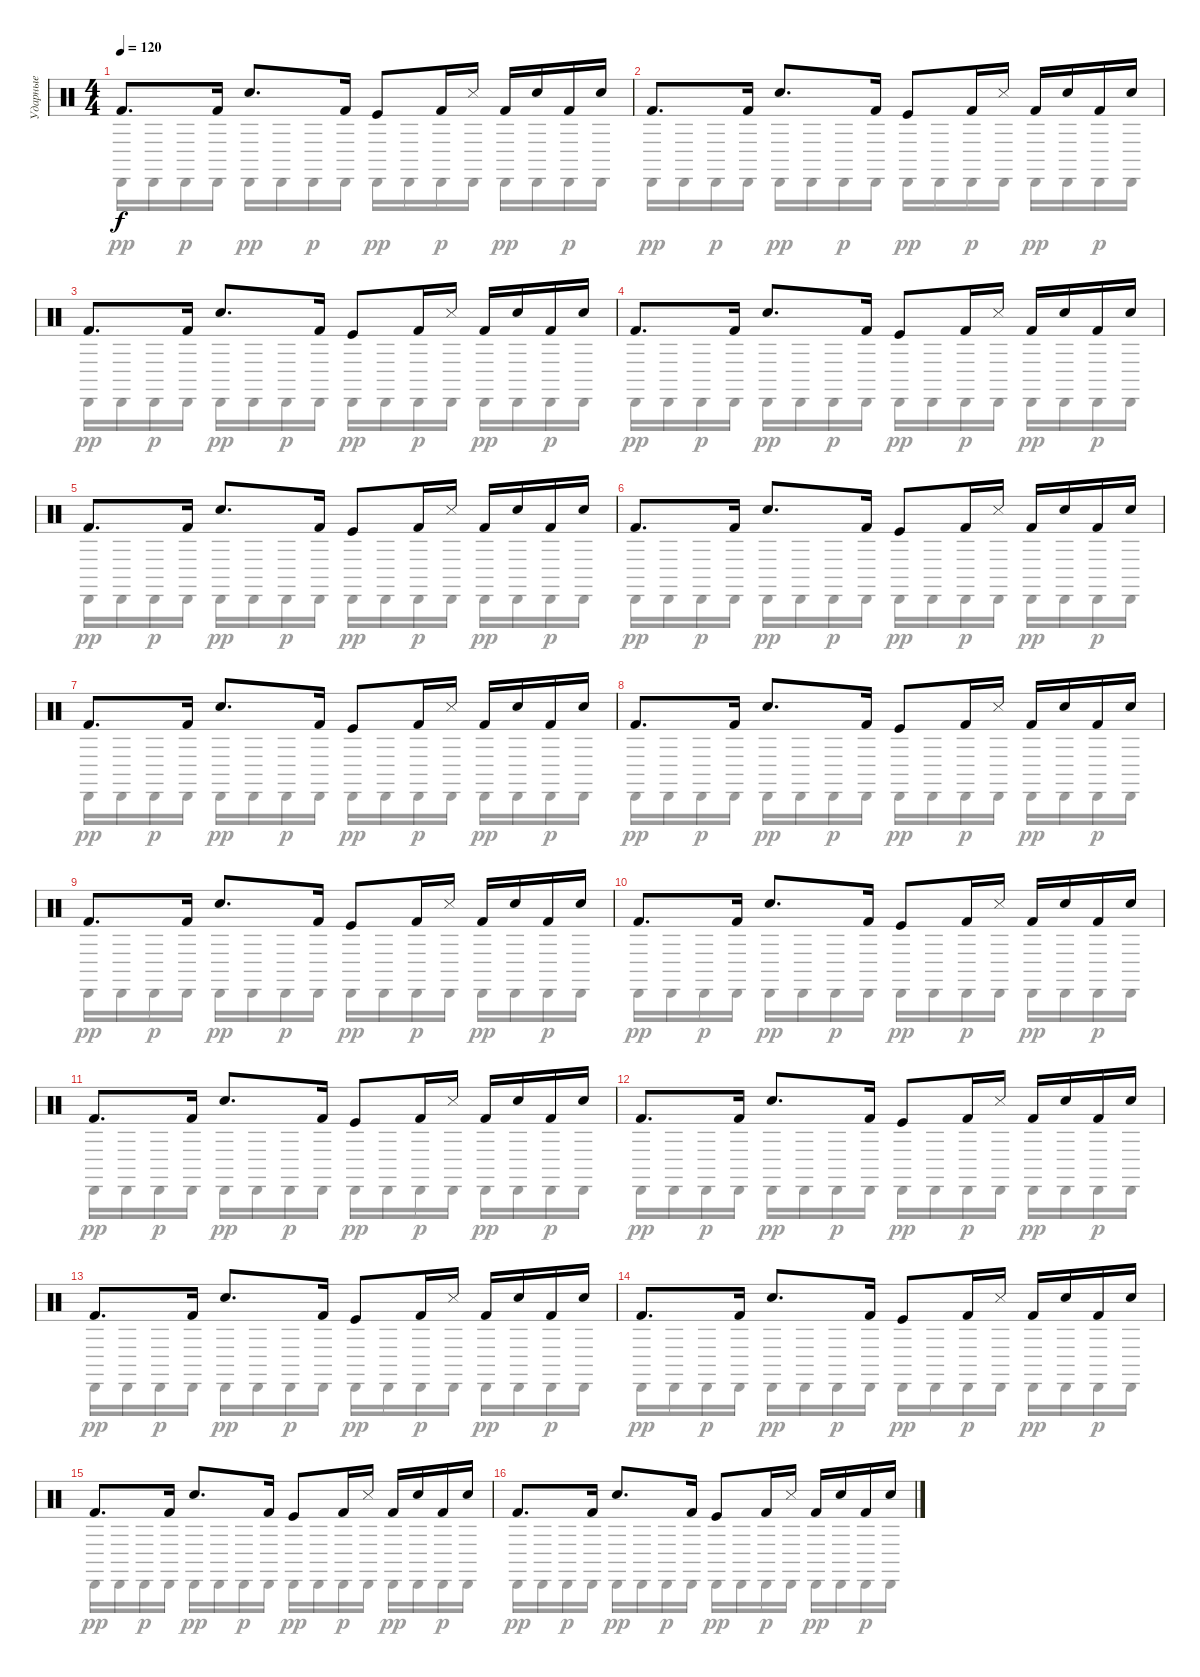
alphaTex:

\track ("Ударные" "Ударные") {instrument percussion}
\staff {score}
\articulation defaults
\voice
\ts (4 4)
\tempo 120
\clef neutral
\ks c "Kick (hit) 2".8{d dy f} "Kick (hit) 2".16 "Electric Snare (hit)".8{d} "Kick (hit) 2".16 "Kick (hit)".8 "Kick (hit) 2".16 "Metronome (hit)".16 "Kick (hit) 2".16 "Electric Snare (hit)".16 "Kick (hit) 2".16 "Electric Snare (hit)".16
|
"Kick (hit) 2".8{d} "Kick (hit) 2".16 "Electric Snare (hit)".8{d} "Kick (hit) 2".16 "Kick (hit)".8 "Kick (hit) 2".16 "Metronome (hit)".16 "Kick (hit) 2".16 "Electric Snare (hit)".16 "Kick (hit) 2".16 "Electric Snare (hit)".16 |
"Kick (hit) 2".8{d} "Kick (hit) 2".16 "Electric Snare (hit)".8{d} "Kick (hit) 2".16 "Kick (hit)".8 "Kick (hit) 2".16 "Metronome (hit)".16 "Kick (hit) 2".16 "Electric Snare (hit)".16 "Kick (hit) 2".16 "Electric Snare (hit)".16 |
"Kick (hit) 2".8{d} "Kick (hit) 2".16 "Electric Snare (hit)".8{d} "Kick (hit) 2".16 "Kick (hit)".8 "Kick (hit) 2".16 "Metronome (hit)".16 "Kick (hit) 2".16 "Electric Snare (hit)".16 "Kick (hit) 2".16 "Electric Snare (hit)".16 |
"Kick (hit) 2".8{d} "Kick (hit) 2".16 "Electric Snare (hit)".8{d} "Kick (hit) 2".16 "Kick (hit)".8 "Kick (hit) 2".16 "Metronome (hit)".16 "Kick (hit) 2".16 "Electric Snare (hit)".16 "Kick (hit) 2".16 "Electric Snare (hit)".16 |
"Kick (hit) 2".8{d} "Kick (hit) 2".16 "Electric Snare (hit)".8{d} "Kick (hit) 2".16 "Kick (hit)".8 "Kick (hit) 2".16 "Metronome (hit)".16 "Kick (hit) 2".16 "Electric Snare (hit)".16 "Kick (hit) 2".16 "Electric Snare (hit)".16 |
"Kick (hit) 2".8{d} "Kick (hit) 2".16 "Electric Snare (hit)".8{d} "Kick (hit) 2".16 "Kick (hit)".8 "Kick (hit) 2".16 "Metronome (hit)".16 "Kick (hit) 2".16 "Electric Snare (hit)".16 "Kick (hit) 2".16 "Electric Snare (hit)".16 |
"Kick (hit) 2".8{d} "Kick (hit) 2".16 "Electric Snare (hit)".8{d} "Kick (hit) 2".16 "Kick (hit)".8 "Kick (hit) 2".16 "Metronome (hit)".16 "Kick (hit) 2".16 "Electric Snare (hit)".16 "Kick (hit) 2".16 "Electric Snare (hit)".16 |
"Kick (hit) 2".8{d} "Kick (hit) 2".16 "Electric Snare (hit)".8{d} "Kick (hit) 2".16 "Kick (hit)".8 "Kick (hit) 2".16 "Metronome (hit)".16 "Kick (hit) 2".16 "Electric Snare (hit)".16 "Kick (hit) 2".16 "Electric Snare (hit)".16 |
"Kick (hit) 2".8{d} "Kick (hit) 2".16 "Electric Snare (hit)".8{d} "Kick (hit) 2".16 "Kick (hit)".8 "Kick (hit) 2".16 "Metronome (hit)".16 "Kick (hit) 2".16 "Electric Snare (hit)".16 "Kick (hit) 2".16 "Electric Snare (hit)".16 |
"Kick (hit) 2".8{d} "Kick (hit) 2".16 "Electric Snare (hit)".8{d} "Kick (hit) 2".16 "Kick (hit)".8 "Kick (hit) 2".16 "Metronome (hit)".16 "Kick (hit) 2".16 "Electric Snare (hit)".16 "Kick (hit) 2".16 "Electric Snare (hit)".16 |
"Kick (hit) 2".8{d} "Kick (hit) 2".16 "Electric Snare (hit)".8{d} "Kick (hit) 2".16 "Kick (hit)".8 "Kick (hit) 2".16 "Metronome (hit)".16 "Kick (hit) 2".16 "Electric Snare (hit)".16 "Kick (hit) 2".16 "Electric Snare (hit)".16 |
"Kick (hit) 2".8{d} "Kick (hit) 2".16 "Electric Snare (hit)".8{d} "Kick (hit) 2".16 "Kick (hit)".8 "Kick (hit) 2".16 "Metronome (hit)".16 "Kick (hit) 2".16 "Electric Snare (hit)".16 "Kick (hit) 2".16 "Electric Snare (hit)".16 |
"Kick (hit) 2".8{d} "Kick (hit) 2".16 "Electric Snare (hit)".8{d} "Kick (hit) 2".16 "Kick (hit)".8 "Kick (hit) 2".16 "Metronome (hit)".16 "Kick (hit) 2".16 "Electric Snare (hit)".16 "Kick (hit) 2".16 "Electric Snare (hit)".16 |
"Kick (hit) 2".8{d} "Kick (hit) 2".16 "Electric Snare (hit)".8{d} "Kick (hit) 2".16 "Kick (hit)".8 "Kick (hit) 2".16 "Metronome (hit)".16 "Kick (hit) 2".16 "Electric Snare (hit)".16 "Kick (hit) 2".16 "Electric Snare (hit)".16 |
"Kick (hit) 2".8{d} "Kick (hit) 2".16 "Electric Snare (hit)".8{d} "Kick (hit) 2".16 "Kick (hit)".8 "Kick (hit) 2".16 "Metronome (hit)".16 "Kick (hit) 2".16 "Electric Snare (hit)".16 "Kick (hit) 2".16 "Electric Snare (hit)".16
\voice
\clef neutral
\ottava regular
\simile none
\ks c "Cabasa (hit)".16{dy pp} "Cabasa (hit)".16 "Cabasa (hit)".16{dy p} "Cabasa (hit)".16 "Cabasa (hit)".16{dy pp} "Cabasa (hit)".16 "Cabasa (hit)".16{dy p} "Cabasa (hit)".16 "Cabasa (hit)".16{dy pp} "Cabasa (hit)".16 "Cabasa (hit)".16{dy p} "Cabasa (hit)".16 "Cabasa (hit)".16{dy pp} "Cabasa (hit)".16 "Cabasa (hit)".16{dy p} "Cabasa (hit)".16
|
"Cabasa (hit)".16{dy pp} "Cabasa (hit)".16 "Cabasa (hit)".16{dy p} "Cabasa (hit)".16 "Cabasa (hit)".16{dy pp} "Cabasa (hit)".16 "Cabasa (hit)".16{dy p} "Cabasa (hit)".16 "Cabasa (hit)".16{dy pp} "Cabasa (hit)".16 "Cabasa (hit)".16{dy p} "Cabasa (hit)".16 "Cabasa (hit)".16{dy pp} "Cabasa (hit)".16 "Cabasa (hit)".16{dy p} "Cabasa (hit)".16 |
"Cabasa (hit)".16{dy pp} "Cabasa (hit)".16 "Cabasa (hit)".16{dy p} "Cabasa (hit)".16 "Cabasa (hit)".16{dy pp} "Cabasa (hit)".16 "Cabasa (hit)".16{dy p} "Cabasa (hit)".16 "Cabasa (hit)".16{dy pp} "Cabasa (hit)".16 "Cabasa (hit)".16{dy p} "Cabasa (hit)".16 "Cabasa (hit)".16{dy pp} "Cabasa (hit)".16 "Cabasa (hit)".16{dy p} "Cabasa (hit)".16 |
"Cabasa (hit)".16{dy pp} "Cabasa (hit)".16 "Cabasa (hit)".16{dy p} "Cabasa (hit)".16 "Cabasa (hit)".16{dy pp} "Cabasa (hit)".16 "Cabasa (hit)".16{dy p} "Cabasa (hit)".16 "Cabasa (hit)".16{dy pp} "Cabasa (hit)".16 "Cabasa (hit)".16{dy p} "Cabasa (hit)".16 "Cabasa (hit)".16{dy pp} "Cabasa (hit)".16 "Cabasa (hit)".16{dy p} "Cabasa (hit)".16 |
"Cabasa (hit)".16{dy pp} "Cabasa (hit)".16 "Cabasa (hit)".16{dy p} "Cabasa (hit)".16 "Cabasa (hit)".16{dy pp} "Cabasa (hit)".16 "Cabasa (hit)".16{dy p} "Cabasa (hit)".16 "Cabasa (hit)".16{dy pp} "Cabasa (hit)".16 "Cabasa (hit)".16{dy p} "Cabasa (hit)".16 "Cabasa (hit)".16{dy pp} "Cabasa (hit)".16 "Cabasa (hit)".16{dy p} "Cabasa (hit)".16 |
"Cabasa (hit)".16{dy pp} "Cabasa (hit)".16 "Cabasa (hit)".16{dy p} "Cabasa (hit)".16 "Cabasa (hit)".16{dy pp} "Cabasa (hit)".16 "Cabasa (hit)".16{dy p} "Cabasa (hit)".16 "Cabasa (hit)".16{dy pp} "Cabasa (hit)".16 "Cabasa (hit)".16{dy p} "Cabasa (hit)".16 "Cabasa (hit)".16{dy pp} "Cabasa (hit)".16 "Cabasa (hit)".16{dy p} "Cabasa (hit)".16 |
"Cabasa (hit)".16{dy pp} "Cabasa (hit)".16 "Cabasa (hit)".16{dy p} "Cabasa (hit)".16 "Cabasa (hit)".16{dy pp} "Cabasa (hit)".16 "Cabasa (hit)".16{dy p} "Cabasa (hit)".16 "Cabasa (hit)".16{dy pp} "Cabasa (hit)".16 "Cabasa (hit)".16{dy p} "Cabasa (hit)".16 "Cabasa (hit)".16{dy pp} "Cabasa (hit)".16 "Cabasa (hit)".16{dy p} "Cabasa (hit)".16 |
"Cabasa (hit)".16{dy pp} "Cabasa (hit)".16 "Cabasa (hit)".16{dy p} "Cabasa (hit)".16 "Cabasa (hit)".16{dy pp} "Cabasa (hit)".16 "Cabasa (hit)".16{dy p} "Cabasa (hit)".16 "Cabasa (hit)".16{dy pp} "Cabasa (hit)".16 "Cabasa (hit)".16{dy p} "Cabasa (hit)".16 "Cabasa (hit)".16{dy pp} "Cabasa (hit)".16 "Cabasa (hit)".16{dy p} "Cabasa (hit)".16 |
"Cabasa (hit)".16{dy pp} "Cabasa (hit)".16 "Cabasa (hit)".16{dy p} "Cabasa (hit)".16 "Cabasa (hit)".16{dy pp} "Cabasa (hit)".16 "Cabasa (hit)".16{dy p} "Cabasa (hit)".16 "Cabasa (hit)".16{dy pp} "Cabasa (hit)".16 "Cabasa (hit)".16{dy p} "Cabasa (hit)".16 "Cabasa (hit)".16{dy pp} "Cabasa (hit)".16 "Cabasa (hit)".16{dy p} "Cabasa (hit)".16 |
"Cabasa (hit)".16{dy pp} "Cabasa (hit)".16 "Cabasa (hit)".16{dy p} "Cabasa (hit)".16 "Cabasa (hit)".16{dy pp} "Cabasa (hit)".16 "Cabasa (hit)".16{dy p} "Cabasa (hit)".16 "Cabasa (hit)".16{dy pp} "Cabasa (hit)".16 "Cabasa (hit)".16{dy p} "Cabasa (hit)".16 "Cabasa (hit)".16{dy pp} "Cabasa (hit)".16 "Cabasa (hit)".16{dy p} "Cabasa (hit)".16 |
"Cabasa (hit)".16{dy pp} "Cabasa (hit)".16 "Cabasa (hit)".16{dy p} "Cabasa (hit)".16 "Cabasa (hit)".16{dy pp} "Cabasa (hit)".16 "Cabasa (hit)".16{dy p} "Cabasa (hit)".16 "Cabasa (hit)".16{dy pp} "Cabasa (hit)".16 "Cabasa (hit)".16{dy p} "Cabasa (hit)".16 "Cabasa (hit)".16{dy pp} "Cabasa (hit)".16 "Cabasa (hit)".16{dy p} "Cabasa (hit)".16 |
"Cabasa (hit)".16{dy pp} "Cabasa (hit)".16 "Cabasa (hit)".16{dy p} "Cabasa (hit)".16 "Cabasa (hit)".16{dy pp} "Cabasa (hit)".16 "Cabasa (hit)".16{dy p} "Cabasa (hit)".16 "Cabasa (hit)".16{dy pp} "Cabasa (hit)".16 "Cabasa (hit)".16{dy p} "Cabasa (hit)".16 "Cabasa (hit)".16{dy pp} "Cabasa (hit)".16 "Cabasa (hit)".16{dy p} "Cabasa (hit)".16 |
"Cabasa (hit)".16{dy pp} "Cabasa (hit)".16 "Cabasa (hit)".16{dy p} "Cabasa (hit)".16 "Cabasa (hit)".16{dy pp} "Cabasa (hit)".16 "Cabasa (hit)".16{dy p} "Cabasa (hit)".16 "Cabasa (hit)".16{dy pp} "Cabasa (hit)".16 "Cabasa (hit)".16{dy p} "Cabasa (hit)".16 "Cabasa (hit)".16{dy pp} "Cabasa (hit)".16 "Cabasa (hit)".16{dy p} "Cabasa (hit)".16 |
"Cabasa (hit)".16{dy pp} "Cabasa (hit)".16 "Cabasa (hit)".16{dy p} "Cabasa (hit)".16 "Cabasa (hit)".16{dy pp} "Cabasa (hit)".16 "Cabasa (hit)".16{dy p} "Cabasa (hit)".16 "Cabasa (hit)".16{dy pp} "Cabasa (hit)".16 "Cabasa (hit)".16{dy p} "Cabasa (hit)".16 "Cabasa (hit)".16{dy pp} "Cabasa (hit)".16 "Cabasa (hit)".16{dy p} "Cabasa (hit)".16 |
"Cabasa (hit)".16{dy pp} "Cabasa (hit)".16 "Cabasa (hit)".16{dy p} "Cabasa (hit)".16 "Cabasa (hit)".16{dy pp} "Cabasa (hit)".16 "Cabasa (hit)".16{dy p} "Cabasa (hit)".16 "Cabasa (hit)".16{dy pp} "Cabasa (hit)".16 "Cabasa (hit)".16{dy p} "Cabasa (hit)".16 "Cabasa (hit)".16{dy pp} "Cabasa (hit)".16 "Cabasa (hit)".16{dy p} "Cabasa (hit)".16 |
"Cabasa (hit)".16{dy pp} "Cabasa (hit)".16 "Cabasa (hit)".16{dy p} "Cabasa (hit)".16 "Cabasa (hit)".16{dy pp} "Cabasa (hit)".16 "Cabasa (hit)".16{dy p} "Cabasa (hit)".16 "Cabasa (hit)".16{dy pp} "Cabasa (hit)".16 "Cabasa (hit)".16{dy p} "Cabasa (hit)".16 "Cabasa (hit)".16{dy pp} "Cabasa (hit)".16 "Cabasa (hit)".16{dy p} "Cabasa (hit)".16
